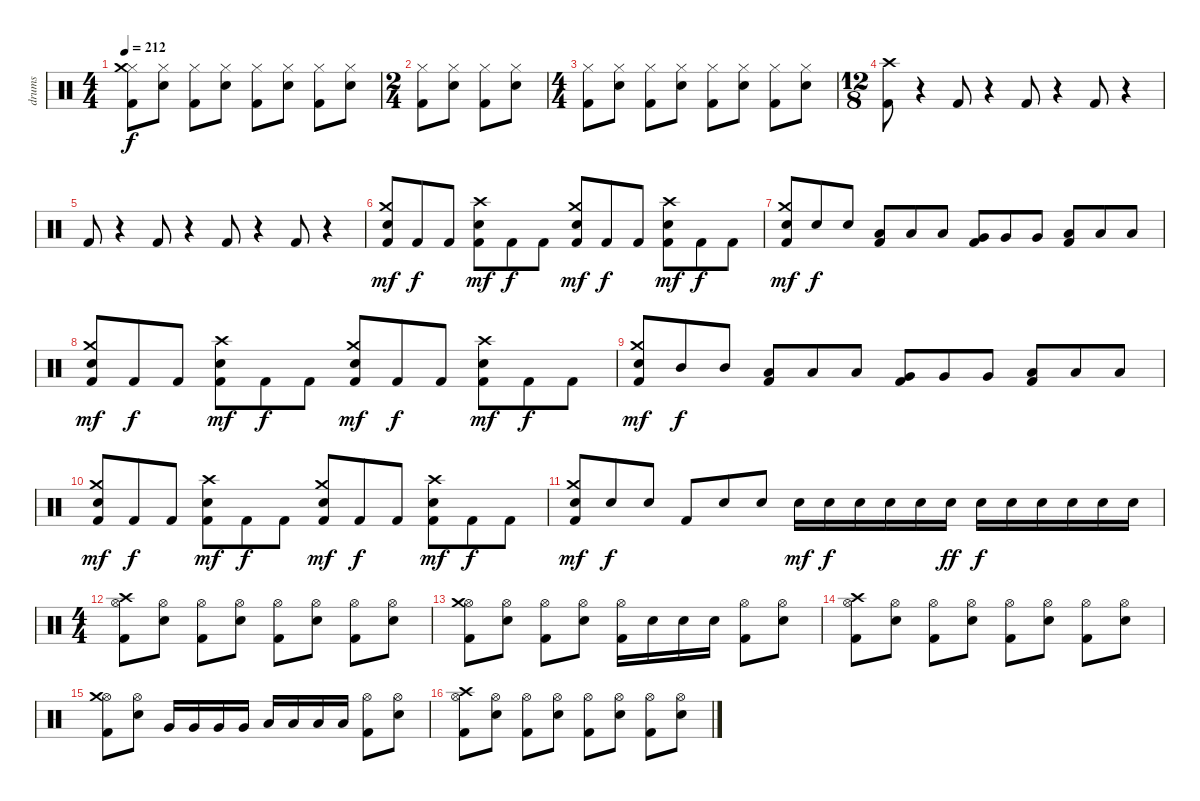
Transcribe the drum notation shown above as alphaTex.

\track ("drums" "drums") {instrument percussion}
\staff {score}
\articulation defaults
\ts (4 4)
\tempo 212
\clef neutral
\ks c
("Kick (hit) 2" "Hi-Hat (closed)" "Crash medium (hit)").8{dy f} ("Snare (hit) 2" "Hi-Hat (closed)").8 ("Kick (hit) 2" "Hi-Hat (closed)").8 ("Snare (hit) 2" "Hi-Hat (closed)").8 ("Kick (hit) 2" "Hi-Hat (closed)").8 ("Snare (hit) 2" "Hi-Hat (closed)").8 ("Kick (hit) 2" "Hi-Hat (closed)").8 ("Snare (hit) 2" "Hi-Hat (closed)").8 |
\ts (2 4)
("Kick (hit) 2" "Hi-Hat (closed)").8 ("Snare (hit) 2" "Hi-Hat (closed)").8 ("Kick (hit) 2" "Hi-Hat (closed)").8 ("Snare (hit) 2" "Hi-Hat (closed)").8 |
\ts (4 4)
("Kick (hit) 2" "Hi-Hat (closed)").8 ("Snare (hit) 2" "Hi-Hat (closed)").8 ("Kick (hit) 2" "Hi-Hat (closed)").8 ("Snare (hit) 2" "Hi-Hat (closed)").8 ("Kick (hit) 2" "Hi-Hat (closed)").8 ("Snare (hit) 2" "Hi-Hat (closed)").8 ("Kick (hit) 2" "Hi-Hat (closed)").8 ("Snare (hit) 2" "Hi-Hat (closed)").8 |
\ts (12 8)
("Kick (hit) 2" "Crash high (hit)").8 r.4 "Kick (hit) 2".8 r.4 "Kick (hit) 2".8 r.4 "Kick (hit) 2".8 r.4 |
"Kick (hit) 2".8 r.4 "Kick (hit) 2".8 r.4 "Kick (hit) 2".8 r.4 "Kick (hit) 2".8 r.4 |
("Kick (hit) 2" "Snare (hit) 2" "Crash medium (hit)").8{dy mf} "Kick (hit) 2".8{dy f} "Kick (hit) 2".8 ("Kick (hit) 2" "Snare (hit) 2" "Crash high (hit)").8{dy mf} "Kick (hit) 2".8{dy f} "Kick (hit) 2".8 ("Kick (hit) 2" "Snare (hit) 2" "Crash medium (hit)").8{dy mf} "Kick (hit) 2".8{dy f} "Kick (hit) 2".8 ("Kick (hit) 2" "Snare (hit) 2" "Crash high (hit)").8{dy mf} "Kick (hit) 2".8{dy f} "Kick (hit) 2".8 |
("Kick (hit) 2" "Snare (hit) 2" "Crash medium (hit)").8{dy mf} "Snare (hit) 2".8{dy f} "Snare (hit) 2".8 ("Kick (hit) 2" "Low Tom (hit)").8 "Low Tom (hit)".8 "Low Tom (hit)".8 ("Kick (hit) 2" "Very Low Tom (hit)").8 "Very Low Tom (hit)".8 "Very Low Tom (hit)".8 ("Kick (hit) 2" "Low Floor Tom (hit)").8 "Low Floor Tom (hit)".8 "Low Floor Tom (hit)".8 |
("Kick (hit) 2" "Snare (hit) 2" "Crash medium (hit)").8{dy mf} "Kick (hit) 2".8{dy f} "Kick (hit) 2".8 ("Kick (hit) 2" "Snare (hit) 2" "Crash high (hit)").8{dy mf} "Kick (hit) 2".8{dy f} "Kick (hit) 2".8 ("Kick (hit) 2" "Snare (hit) 2" "Crash medium (hit)").8{dy mf} "Kick (hit) 2".8{dy f} "Kick (hit) 2".8 ("Kick (hit) 2" "Snare (hit) 2" "Crash high (hit)").8{dy mf} "Kick (hit) 2".8{dy f} "Kick (hit) 2".8 |
("Kick (hit) 2" "Snare (hit) 2" "Crash medium (hit)").8{dy mf} "Mid Tom (hit)".8{dy f} "Mid Tom (hit)".8 ("Kick (hit) 2" "Low Tom (hit)").8 "Low Tom (hit)".8 "Low Tom (hit)".8 ("Kick (hit) 2" "Very Low Tom (hit)").8 "Very Low Tom (hit)".8 "Very Low Tom (hit)".8 ("Kick (hit) 2" "Low Floor Tom (hit)").8 "Low Floor Tom (hit)".8 "Low Floor Tom (hit)".8 |
("Kick (hit) 2" "Snare (hit) 2" "Crash medium (hit)").8{dy mf} "Kick (hit) 2".8{dy f} "Kick (hit) 2".8 ("Kick (hit) 2" "Snare (hit) 2" "Crash high (hit)").8{dy mf} "Kick (hit) 2".8{dy f} "Kick (hit) 2".8 ("Kick (hit) 2" "Snare (hit) 2" "Crash medium (hit)").8{dy mf} "Kick (hit) 2".8{dy f} "Kick (hit) 2".8 ("Kick (hit) 2" "Snare (hit) 2" "Crash high (hit)").8{dy mf} "Kick (hit) 2".8{dy f} "Kick (hit) 2".8 |
("Kick (hit) 2" "Snare (hit) 2" "Crash medium (hit)").8{dy mf} "Snare (hit) 2".8{dy f} "Snare (hit) 2".8 "Kick (hit) 2".8 "Snare (hit) 2".8 "Snare (hit) 2".8 "Snare (hit) 2".16{dy mf} "Snare (hit) 2".16{dy f} "Snare (hit) 2".16 "Snare (hit) 2".16 "Snare (hit) 2".16 "Snare (hit) 2".16{dy ff} "Snare (hit) 2".16{dy f} "Snare (hit) 2".16 "Snare (hit) 2".16 "Snare (hit) 2".16 "Snare (hit) 2".16 "Snare (hit) 2".16 |
\ts (4 4)
("Kick (hit) 2" "Hi-Hat (open)" "Crash high (hit)").8 ("Snare (hit) 2" "Hi-Hat (open)").8 ("Kick (hit) 2" "Hi-Hat (open)").8 ("Snare (hit) 2" "Hi-Hat (open)").8 ("Kick (hit) 2" "Hi-Hat (open)").8 ("Snare (hit) 2" "Hi-Hat (open)").8 ("Kick (hit) 2" "Hi-Hat (open)").8 ("Snare (hit) 2" "Hi-Hat (open)").8 |
("Kick (hit) 2" "Hi-Hat (open)" "Crash medium (hit)").8 ("Snare (hit) 2" "Hi-Hat (open)").8 ("Kick (hit) 2" "Hi-Hat (open)").8 ("Snare (hit) 2" "Hi-Hat (open)").8 ("Kick (hit) 2" "Hi-Hat (open)").16 "Snare (hit) 2".16 "Snare (hit) 2".16 "Snare (hit) 2".16 ("Kick (hit) 2" "Hi-Hat (open)").8 ("Snare (hit) 2" "Hi-Hat (open)").8 |
("Kick (hit) 2" "Hi-Hat (open)" "Crash high (hit)").8 ("Snare (hit) 2" "Hi-Hat (open)").8 ("Kick (hit) 2" "Hi-Hat (open)").8 ("Snare (hit) 2" "Hi-Hat (open)").8 ("Kick (hit) 2" "Hi-Hat (open)").8 ("Snare (hit) 2" "Hi-Hat (open)").8 ("Kick (hit) 2" "Hi-Hat (open)").8 ("Snare (hit) 2" "Hi-Hat (open)").8 |
("Kick (hit) 2" "Hi-Hat (open)" "Crash medium (hit)").8 ("Snare (hit) 2" "Hi-Hat (open)").8 "Very Low Tom (hit)".16 "Very Low Tom (hit)".16 "Very Low Tom (hit)".16 "Very Low Tom (hit)".16 "Low Tom (hit)".16 "Low Tom (hit)".16 "Low Tom (hit)".16 "Low Tom (hit)".16 ("Kick (hit) 2" "Hi-Hat (open)").8 ("Snare (hit) 2" "Hi-Hat (open)").8 |
("Kick (hit) 2" "Hi-Hat (open)" "Crash high (hit)").8 ("Snare (hit) 2" "Hi-Hat (open)").8 ("Kick (hit) 2" "Hi-Hat (open)").8 ("Snare (hit) 2" "Hi-Hat (open)").8 ("Kick (hit) 2" "Hi-Hat (open)").8 ("Snare (hit) 2" "Hi-Hat (open)").8 ("Kick (hit) 2" "Hi-Hat (open)").8 ("Snare (hit) 2" "Hi-Hat (open)").8
